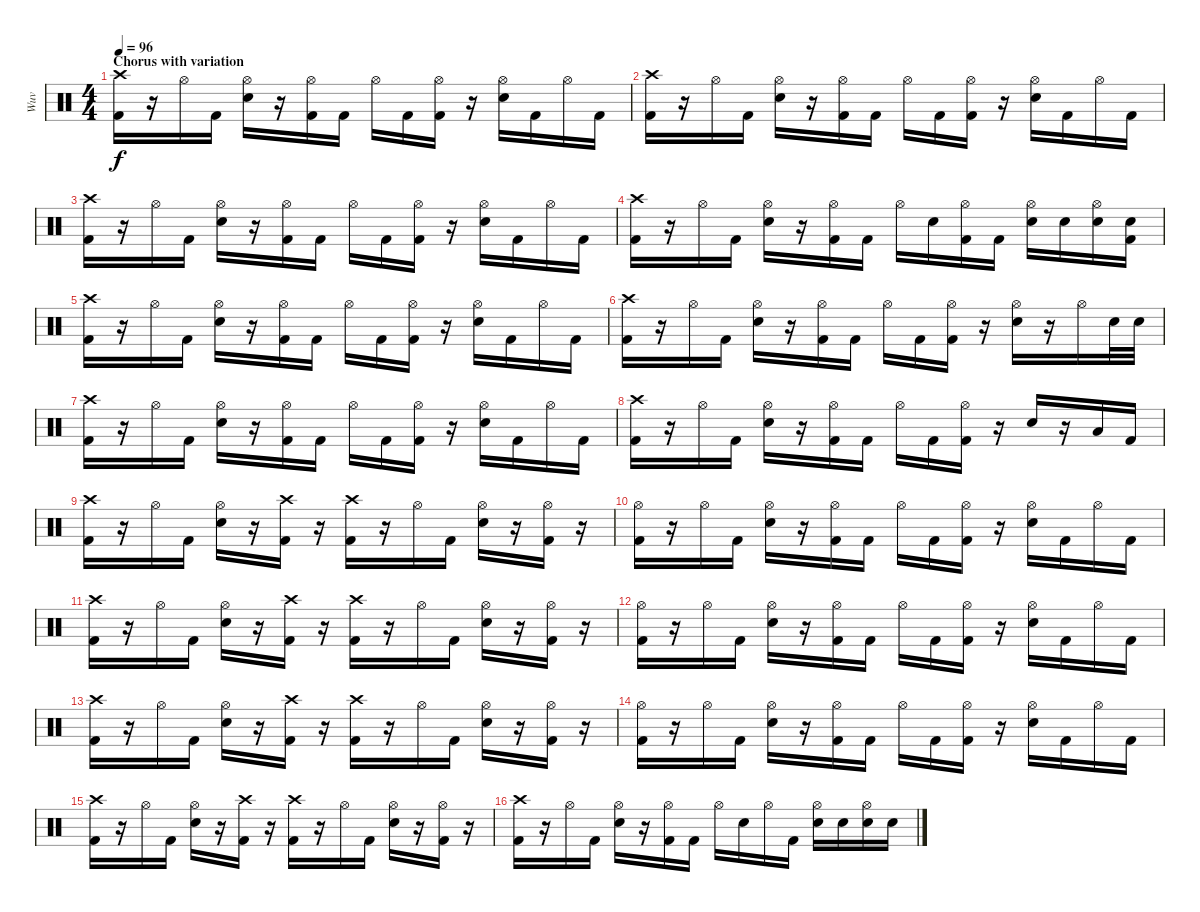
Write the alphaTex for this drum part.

\track ("Wuv" "Wuv") {instrument percussion}
\staff {score}
\articulation defaults
\ts (4 4)
\section ("" "Chorus with variation")
\tempo 96
\clef neutral
\ks c
("Crash high (hit)" "Kick (hit) 2").16{dy f} r.16 "Hi-Hat (open)".16 "Kick (hit) 2".16 ("Hi-Hat (open)" "Snare (hit) 2").16 r.16 ("Hi-Hat (open)" "Kick (hit) 2").16 "Kick (hit) 2".16 "Hi-Hat (open)".16 "Kick (hit) 2".16 ("Hi-Hat (open)" "Kick (hit) 2").16 r.16 ("Hi-Hat (open)" "Snare (hit) 2").16 "Kick (hit) 2".16 "Hi-Hat (open)".16 "Kick (hit) 2".16 |
("Crash high (hit)" "Kick (hit) 2").16 r.16 "Hi-Hat (open)".16 "Kick (hit) 2".16 ("Hi-Hat (open)" "Snare (hit) 2").16 r.16 ("Hi-Hat (open)" "Kick (hit) 2").16 "Kick (hit) 2".16 "Hi-Hat (open)".16 "Kick (hit) 2".16 ("Hi-Hat (open)" "Kick (hit) 2").16 r.16 ("Hi-Hat (open)" "Snare (hit) 2").16 "Kick (hit) 2".16 "Hi-Hat (open)".16 "Kick (hit) 2".16 |
("Crash high (hit)" "Kick (hit) 2").16 r.16 "Hi-Hat (open)".16 "Kick (hit) 2".16 ("Hi-Hat (open)" "Snare (hit) 2").16 r.16 ("Hi-Hat (open)" "Kick (hit) 2").16 "Kick (hit) 2".16 "Hi-Hat (open)".16 "Kick (hit) 2".16 ("Hi-Hat (open)" "Kick (hit) 2").16 r.16 ("Hi-Hat (open)" "Snare (hit) 2").16 "Kick (hit) 2".16 "Hi-Hat (open)".16 "Kick (hit) 2".16 |
("Crash high (hit)" "Kick (hit) 2").16 r.16 "Hi-Hat (open)".16 "Kick (hit) 2".16 ("Hi-Hat (open)" "Snare (hit) 2").16 r.16 ("Hi-Hat (open)" "Kick (hit) 2").16 "Kick (hit) 2".16 "Hi-Hat (open)".16 "Snare (hit) 2".16 ("Hi-Hat (open)" "Kick (hit) 2").16 "Kick (hit) 2".16 ("Hi-Hat (open)" "Snare (hit) 2").16 "Snare (hit) 2".16 ("Hi-Hat (open)" "Snare (hit) 2").16 ("Snare (hit) 2" "Kick (hit) 2").16 |
("Crash high (hit)" "Kick (hit) 2").16 r.16 "Hi-Hat (open)".16 "Kick (hit) 2".16 ("Hi-Hat (open)" "Snare (hit) 2").16 r.16 ("Hi-Hat (open)" "Kick (hit) 2").16 "Kick (hit) 2".16 "Hi-Hat (open)".16 "Kick (hit) 2".16 ("Hi-Hat (open)" "Kick (hit) 2").16 r.16 ("Hi-Hat (open)" "Snare (hit) 2").16 "Kick (hit) 2".16 "Hi-Hat (open)".16 "Kick (hit) 2".16 |
("Crash high (hit)" "Kick (hit) 2").16 r.16 "Hi-Hat (open)".16 "Kick (hit) 2".16 ("Hi-Hat (open)" "Snare (hit) 2").16 r.16 ("Hi-Hat (open)" "Kick (hit) 2").16 "Kick (hit) 2".16 "Hi-Hat (open)".16 "Kick (hit) 2".16 ("Hi-Hat (open)" "Kick (hit) 2").16 r.16 ("Hi-Hat (open)" "Snare (hit) 2").16 r.16 "Hi-Hat (open)".16 "Snare (hit) 2".32 "Snare (hit) 2".32 |
("Crash high (hit)" "Kick (hit) 2").16 r.16 "Hi-Hat (open)".16 "Kick (hit) 2".16 ("Hi-Hat (open)" "Snare (hit) 2").16 r.16 ("Hi-Hat (open)" "Kick (hit) 2").16 "Kick (hit) 2".16 "Hi-Hat (open)".16 "Kick (hit) 2".16 ("Hi-Hat (open)" "Kick (hit) 2").16 r.16 ("Hi-Hat (open)" "Snare (hit) 2").16 "Kick (hit) 2".16 "Hi-Hat (open)".16 "Kick (hit) 2".16 |
("Crash high (hit)" "Kick (hit) 2").16 r.16 "Hi-Hat (open)".16 "Kick (hit) 2".16 ("Hi-Hat (open)" "Snare (hit) 2").16 r.16 ("Hi-Hat (open)" "Kick (hit) 2").16 "Kick (hit) 2".16 "Hi-Hat (open)".16 "Kick (hit) 2".16 ("Hi-Hat (open)" "Kick (hit) 2").16 r.16 "Snare (hit) 2".16 r.16 "Low Tom (hit)".16 "Kick (hit) 2".16 |
("Crash high (hit)" "Kick (hit) 2").16 r.16 "Hi-Hat (open)".16 "Kick (hit) 2".16 ("Hi-Hat (open)" "Snare (hit) 2").16 r.16 ("Crash high (hit)" "Kick (hit) 2").16 r.16 ("Crash high (hit)" "Kick (hit) 2").16 r.16 "Hi-Hat (open)".16 "Kick (hit) 2".16 ("Hi-Hat (open)" "Snare (hit) 2").16 r.16 ("Hi-Hat (open)" "Kick (hit) 2").16 r.16 |
("Hi-Hat (open)" "Kick (hit) 2").16 r.16 "Hi-Hat (open)".16 "Kick (hit) 2".16 ("Hi-Hat (open)" "Snare (hit) 2").16 r.16 ("Hi-Hat (open)" "Kick (hit) 2").16 "Kick (hit) 2".16 "Hi-Hat (open)".16 "Kick (hit) 2".16 ("Hi-Hat (open)" "Kick (hit) 2").16 r.16 ("Hi-Hat (open)" "Snare (hit) 2").16 "Kick (hit) 2".16 "Hi-Hat (open)".16 "Kick (hit) 2".16 |
("Crash high (hit)" "Kick (hit) 2").16 r.16 "Hi-Hat (open)".16 "Kick (hit) 2".16 ("Hi-Hat (open)" "Snare (hit) 2").16 r.16 ("Crash high (hit)" "Kick (hit) 2").16 r.16 ("Crash high (hit)" "Kick (hit) 2").16 r.16 "Hi-Hat (open)".16 "Kick (hit) 2".16 ("Hi-Hat (open)" "Snare (hit) 2").16 r.16 ("Hi-Hat (open)" "Kick (hit) 2").16 r.16 |
("Hi-Hat (open)" "Kick (hit) 2").16 r.16 "Hi-Hat (open)".16 "Kick (hit) 2".16 ("Hi-Hat (open)" "Snare (hit) 2").16 r.16 ("Hi-Hat (open)" "Kick (hit) 2").16 "Kick (hit) 2".16 "Hi-Hat (open)".16 "Kick (hit) 2".16 ("Hi-Hat (open)" "Kick (hit) 2").16 r.16 ("Hi-Hat (open)" "Snare (hit) 2").16 "Kick (hit) 2".16 "Hi-Hat (open)".16 "Kick (hit) 2".16 |
("Crash high (hit)" "Kick (hit) 2").16 r.16 "Hi-Hat (open)".16 "Kick (hit) 2".16 ("Hi-Hat (open)" "Snare (hit) 2").16 r.16 ("Crash high (hit)" "Kick (hit) 2").16 r.16 ("Crash high (hit)" "Kick (hit) 2").16 r.16 "Hi-Hat (open)".16 "Kick (hit) 2".16 ("Hi-Hat (open)" "Snare (hit) 2").16 r.16 ("Hi-Hat (open)" "Kick (hit) 2").16 r.16 |
("Hi-Hat (open)" "Kick (hit) 2").16 r.16 "Hi-Hat (open)".16 "Kick (hit) 2".16 ("Hi-Hat (open)" "Snare (hit) 2").16 r.16 ("Hi-Hat (open)" "Kick (hit) 2").16 "Kick (hit) 2".16 "Hi-Hat (open)".16 "Kick (hit) 2".16 ("Hi-Hat (open)" "Kick (hit) 2").16 r.16 ("Hi-Hat (open)" "Snare (hit) 2").16 "Kick (hit) 2".16 "Hi-Hat (open)".16 "Kick (hit) 2".16 |
("Crash high (hit)" "Kick (hit) 2").16 r.16 "Hi-Hat (open)".16 "Kick (hit) 2".16 ("Hi-Hat (open)" "Snare (hit) 2").16 r.16 ("Crash high (hit)" "Kick (hit) 2").16 r.16 ("Crash high (hit)" "Kick (hit) 2").16 r.16 "Hi-Hat (open)".16 "Kick (hit) 2".16 ("Hi-Hat (open)" "Snare (hit) 2").16 r.16 ("Hi-Hat (open)" "Kick (hit) 2").16 r.16 |
("Crash high (hit)" "Kick (hit) 2").16 r.16 "Hi-Hat (open)".16 "Kick (hit) 2".16 ("Hi-Hat (open)" "Snare (hit) 2").16 r.16 ("Hi-Hat (open)" "Kick (hit) 2").16 "Kick (hit) 2".16 "Hi-Hat (open)".16 "Snare (hit) 2".16 "Hi-Hat (open)".16 "Kick (hit) 2".16 ("Hi-Hat (open)" "Snare (hit) 2").16 "Snare (hit) 2".16 ("Hi-Hat (open)" "Snare (hit) 2").16 "Snare (hit) 2".16
